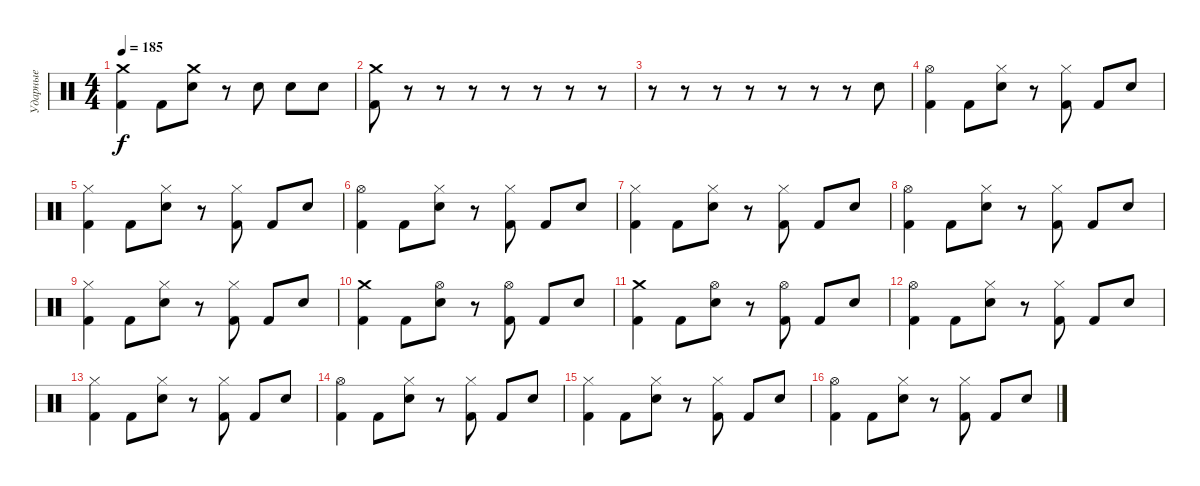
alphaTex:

\track ("Ударные" "Ударные") {instrument percussion}
\staff {score}
\articulation defaults
\ts (4 4)
\tempo 185
\clef neutral
\ks c
("Crash medium (hit)" "Kick (hit) 2").4{dy f} "Kick (hit) 2".8 ("Crash medium (hit)" "Electric Snare (hit)").8 r.8 "Electric Snare (hit)".8 "Electric Snare (hit)".8 "Electric Snare (hit)".8 |
("Crash medium (hit)" "Kick (hit) 2").8 r.8 r.8 r.8 r.8 r.8 r.8 r.8 |
r.8 r.8 r.8 r.8 r.8 r.8 r.8 "Electric Snare (hit)".8 |
("Hi-Hat (open)" "Kick (hit) 2").4 "Kick (hit) 2".8 ("Hi-Hat (closed)" "Electric Snare (hit)").8 r.8 ("Hi-Hat (closed)" "Kick (hit) 2").8 "Kick (hit) 2".8 "Electric Snare (hit)".8 |
("Hi-Hat (closed)" "Kick (hit) 2").4 "Kick (hit) 2".8 ("Hi-Hat (closed)" "Electric Snare (hit)").8 r.8 ("Hi-Hat (closed)" "Kick (hit) 2").8 "Kick (hit) 2".8 "Electric Snare (hit)".8 |
("Hi-Hat (open)" "Kick (hit) 2").4 "Kick (hit) 2".8 ("Hi-Hat (closed)" "Electric Snare (hit)").8 r.8 ("Hi-Hat (closed)" "Kick (hit) 2").8 "Kick (hit) 2".8 "Electric Snare (hit)".8 |
("Hi-Hat (closed)" "Kick (hit) 2").4 "Kick (hit) 2".8 ("Hi-Hat (closed)" "Electric Snare (hit)").8 r.8 ("Hi-Hat (closed)" "Kick (hit) 2").8 "Kick (hit) 2".8 "Electric Snare (hit)".8 |
("Hi-Hat (open)" "Kick (hit) 2").4 "Kick (hit) 2".8 ("Hi-Hat (closed)" "Electric Snare (hit)").8 r.8 ("Hi-Hat (closed)" "Kick (hit) 2").8 "Kick (hit) 2".8 "Electric Snare (hit)".8 |
("Hi-Hat (closed)" "Kick (hit) 2").4 "Kick (hit) 2".8 ("Hi-Hat (closed)" "Electric Snare (hit)").8 r.8 ("Hi-Hat (closed)" "Kick (hit) 2").8 "Kick (hit) 2".8 "Electric Snare (hit)".8 |
("Crash medium (hit)" "Kick (hit) 2").4 "Kick (hit) 2".8 ("Hi-Hat (open)" "Electric Snare (hit)").8 r.8 ("Hi-Hat (open)" "Kick (hit) 2").8 "Kick (hit) 2".8 "Electric Snare (hit)".8 |
("Crash medium (hit)" "Kick (hit) 2").4 "Kick (hit) 2".8 ("Hi-Hat (open)" "Electric Snare (hit)").8 r.8 ("Hi-Hat (open)" "Kick (hit) 2").8 "Kick (hit) 2".8 "Electric Snare (hit)".8 |
("Hi-Hat (open)" "Kick (hit) 2").4 "Kick (hit) 2".8 ("Hi-Hat (closed)" "Electric Snare (hit)").8 r.8 ("Hi-Hat (closed)" "Kick (hit) 2").8 "Kick (hit) 2".8 "Electric Snare (hit)".8 |
("Hi-Hat (closed)" "Kick (hit) 2").4 "Kick (hit) 2".8 ("Hi-Hat (closed)" "Electric Snare (hit)").8 r.8 ("Hi-Hat (closed)" "Kick (hit) 2").8 "Kick (hit) 2".8 "Electric Snare (hit)".8 |
("Hi-Hat (open)" "Kick (hit) 2").4 "Kick (hit) 2".8 ("Hi-Hat (closed)" "Electric Snare (hit)").8 r.8 ("Hi-Hat (closed)" "Kick (hit) 2").8 "Kick (hit) 2".8 "Electric Snare (hit)".8 |
("Hi-Hat (closed)" "Kick (hit) 2").4 "Kick (hit) 2".8 ("Hi-Hat (closed)" "Electric Snare (hit)").8 r.8 ("Hi-Hat (closed)" "Kick (hit) 2").8 "Kick (hit) 2".8 "Electric Snare (hit)".8 |
("Hi-Hat (open)" "Kick (hit) 2").4 "Kick (hit) 2".8 ("Hi-Hat (closed)" "Electric Snare (hit)").8 r.8 ("Hi-Hat (closed)" "Kick (hit) 2").8 "Kick (hit) 2".8 "Electric Snare (hit)".8
